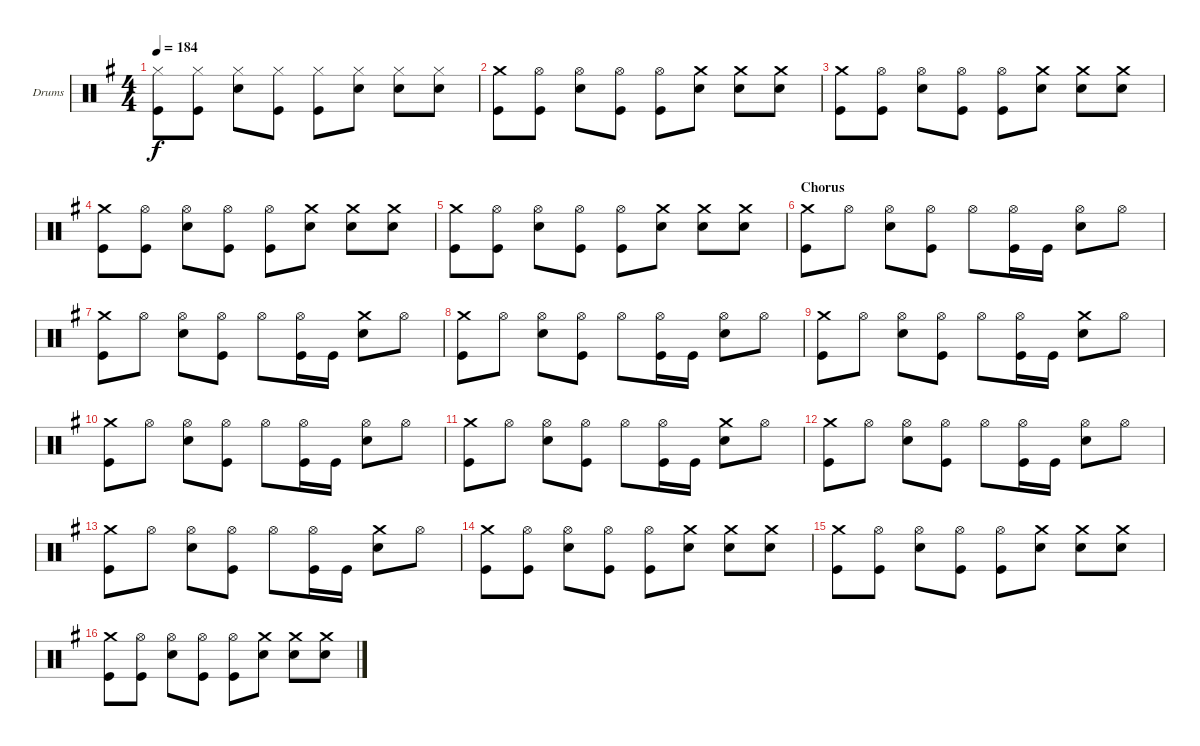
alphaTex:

\defaultSystemsLayout 4
\bracketExtendMode groupsimilarinstruments
\firstSystemTrackNameOrientation horizontal
\otherSystemsTrackNameOrientation horizontal
\track ("Drumkit" "Drums") {instrument percussion}
\staff {score}
\articulation defaults
\ts (4 4)
\tempo 184
\clef neutral
\ks g
("Hi-Hat (closed)" "Kick (hit)").8{dy f} ("Hi-Hat (closed)" "Kick (hit)").8 ("Hi-Hat (closed)" "Snare (hit) 2").8 ("Hi-Hat (closed)" "Kick (hit)").8 ("Hi-Hat (closed)" "Kick (hit)").8 ("Hi-Hat (closed)" "Snare (hit) 2").8 ("Hi-Hat (closed)" "Snare (hit) 2").8 ("Hi-Hat (closed)" "Snare (hit) 2").8 |
("Crash medium (hit)" "Kick (hit)").8 ("Hi-Hat (open)" "Kick (hit)").8 ("Hi-Hat (open)" "Snare (hit) 2").8 ("Hi-Hat (open)" "Kick (hit)").8 ("Hi-Hat (open)" "Kick (hit)").8 ("Crash medium (hit)" "Snare (hit) 2").8 ("Crash medium (hit)" "Snare (hit) 2").8 ("Crash medium (hit)" "Snare (hit) 2").8 |
("Crash medium (hit)" "Kick (hit)").8 ("Hi-Hat (open)" "Kick (hit)").8 ("Hi-Hat (open)" "Snare (hit) 2").8 ("Hi-Hat (open)" "Kick (hit)").8 ("Hi-Hat (open)" "Kick (hit)").8 ("Crash medium (hit)" "Snare (hit) 2").8 ("Crash medium (hit)" "Snare (hit) 2").8 ("Crash medium (hit)" "Snare (hit) 2").8 |
("Crash medium (hit)" "Kick (hit)").8 ("Hi-Hat (open)" "Kick (hit)").8 ("Hi-Hat (open)" "Snare (hit) 2").8 ("Hi-Hat (open)" "Kick (hit)").8 ("Hi-Hat (open)" "Kick (hit)").8 ("Crash medium (hit)" "Snare (hit) 2").8 ("Crash medium (hit)" "Snare (hit) 2").8 ("Crash medium (hit)" "Snare (hit) 2").8 |
("Crash medium (hit)" "Kick (hit)").8 ("Hi-Hat (open)" "Kick (hit)").8 ("Hi-Hat (open)" "Snare (hit) 2").8 ("Hi-Hat (open)" "Kick (hit)").8 ("Hi-Hat (open)" "Kick (hit)").8 ("Crash medium (hit)" "Snare (hit) 2").8 ("Crash medium (hit)" "Snare (hit) 2").8 ("Crash medium (hit)" "Snare (hit) 2").8 |
\section ("" "Chorus")
("Crash medium (hit)" "Kick (hit)").8 "Hi-Hat (open)".8 ("Hi-Hat (open)" "Snare (hit) 2").8 ("Hi-Hat (open)" "Kick (hit)").8 "Hi-Hat (open)".8 ("Hi-Hat (open)" "Kick (hit)").16 "Kick (hit)".16 ("Hi-Hat (open)" "Snare (hit) 2").8 "Hi-Hat (open)".8 |
("Crash medium (hit)" "Kick (hit)").8 "Hi-Hat (open)".8 ("Hi-Hat (open)" "Snare (hit) 2").8 ("Hi-Hat (open)" "Kick (hit)").8 "Hi-Hat (open)".8 ("Hi-Hat (open)" "Kick (hit)").16 "Kick (hit)".16 ("Crash medium (hit)" "Snare (hit) 2").8 "Hi-Hat (open)".8 |
("Crash medium (hit)" "Kick (hit)").8 "Hi-Hat (open)".8 ("Hi-Hat (open)" "Snare (hit) 2").8 ("Hi-Hat (open)" "Kick (hit)").8 "Hi-Hat (open)".8 ("Hi-Hat (open)" "Kick (hit)").16 "Kick (hit)".16 ("Hi-Hat (open)" "Snare (hit) 2").8 "Hi-Hat (open)".8 |
("Crash medium (hit)" "Kick (hit)").8 "Hi-Hat (open)".8 ("Hi-Hat (open)" "Snare (hit) 2").8 ("Hi-Hat (open)" "Kick (hit)").8 "Hi-Hat (open)".8 ("Hi-Hat (open)" "Kick (hit)").16 "Kick (hit)".16 ("Crash medium (hit)" "Snare (hit) 2").8 "Hi-Hat (open)".8 |
("Crash medium (hit)" "Kick (hit)").8 "Hi-Hat (open)".8 ("Hi-Hat (open)" "Snare (hit) 2").8 ("Hi-Hat (open)" "Kick (hit)").8 "Hi-Hat (open)".8 ("Hi-Hat (open)" "Kick (hit)").16 "Kick (hit)".16 ("Hi-Hat (open)" "Snare (hit) 2").8 "Hi-Hat (open)".8 |
("Crash medium (hit)" "Kick (hit)").8 "Hi-Hat (open)".8 ("Hi-Hat (open)" "Snare (hit) 2").8 ("Hi-Hat (open)" "Kick (hit)").8 "Hi-Hat (open)".8 ("Hi-Hat (open)" "Kick (hit)").16 "Kick (hit)".16 ("Crash medium (hit)" "Snare (hit) 2").8 "Hi-Hat (open)".8 |
("Crash medium (hit)" "Kick (hit)").8 "Hi-Hat (open)".8 ("Hi-Hat (open)" "Snare (hit) 2").8 ("Hi-Hat (open)" "Kick (hit)").8 "Hi-Hat (open)".8 ("Hi-Hat (open)" "Kick (hit)").16 "Kick (hit)".16 ("Hi-Hat (open)" "Snare (hit) 2").8 "Hi-Hat (open)".8 |
("Crash medium (hit)" "Kick (hit)").8 "Hi-Hat (open)".8 ("Hi-Hat (open)" "Snare (hit) 2").8 ("Hi-Hat (open)" "Kick (hit)").8 "Hi-Hat (open)".8 ("Hi-Hat (open)" "Kick (hit)").16 "Kick (hit)".16 ("Crash medium (hit)" "Snare (hit) 2").8 "Hi-Hat (open)".8 |
("Crash medium (hit)" "Kick (hit)").8 ("Hi-Hat (open)" "Kick (hit)").8 ("Hi-Hat (open)" "Snare (hit) 2").8 ("Hi-Hat (open)" "Kick (hit)").8 ("Hi-Hat (open)" "Kick (hit)").8 ("Crash medium (hit)" "Snare (hit) 2").8 ("Crash medium (hit)" "Snare (hit) 2").8 ("Crash medium (hit)" "Snare (hit) 2").8 |
("Crash medium (hit)" "Kick (hit)").8 ("Hi-Hat (open)" "Kick (hit)").8 ("Hi-Hat (open)" "Snare (hit) 2").8 ("Hi-Hat (open)" "Kick (hit)").8 ("Hi-Hat (open)" "Kick (hit)").8 ("Crash medium (hit)" "Snare (hit) 2").8 ("Crash medium (hit)" "Snare (hit) 2").8 ("Crash medium (hit)" "Snare (hit) 2").8 |
("Crash medium (hit)" "Kick (hit)").8 ("Hi-Hat (open)" "Kick (hit)").8 ("Hi-Hat (open)" "Snare (hit) 2").8 ("Hi-Hat (open)" "Kick (hit)").8 ("Hi-Hat (open)" "Kick (hit)").8 ("Crash medium (hit)" "Snare (hit) 2").8 ("Crash medium (hit)" "Snare (hit) 2").8 ("Crash medium (hit)" "Snare (hit) 2").8
